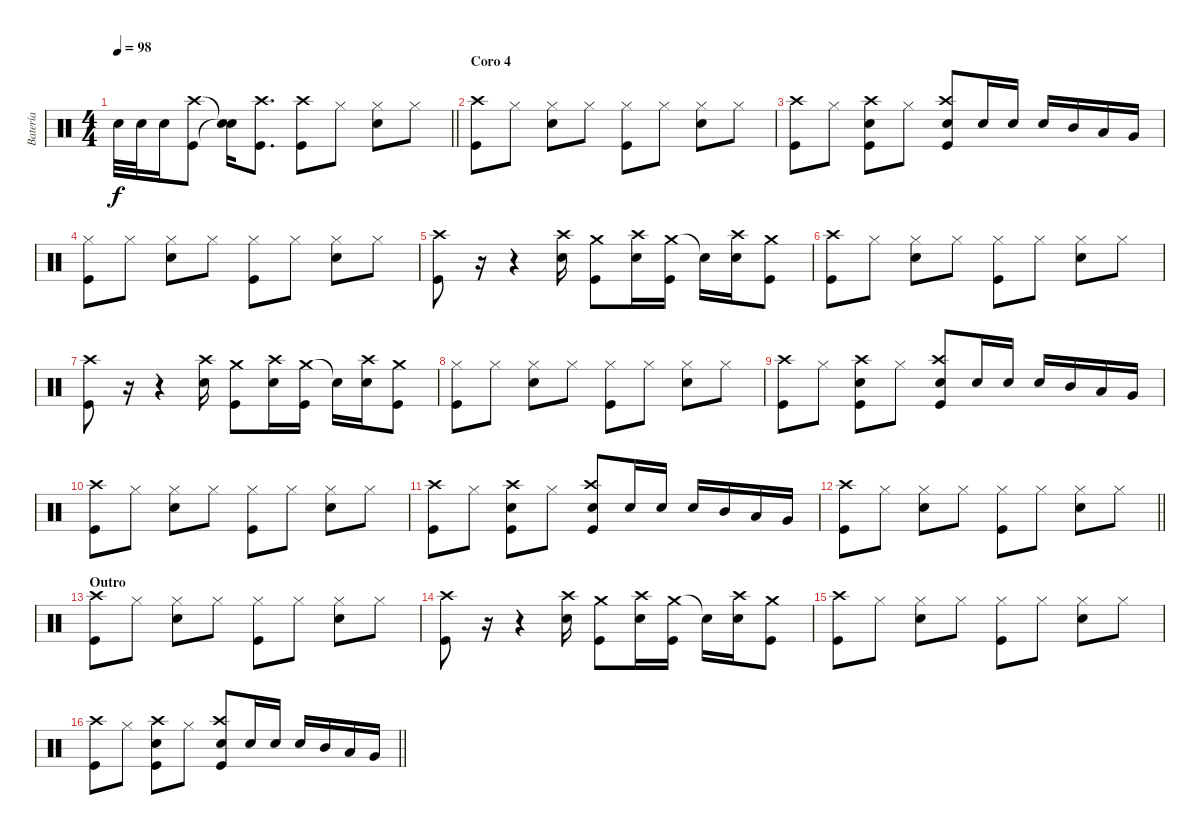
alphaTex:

\track ("Batería" "Batería") {instrument percussion}
\staff {score}
\articulation defaults
\ts (4 4)
\tempo 98
\clef neutral
\barLineRight lightlight
\ks c "Electric Snare (hit)".32{dy f} "Electric Snare (hit)".32 "Electric Snare (hit)".16
("Crash high (hit)" "Kick (hit)").8 ("Snare (hit)"{t} "Snare (hit)"{t}).16 ("Crash high (hit)" "Kick (hit)").8{d} ("Crash high (hit)" "Kick (hit)").8 "Hi-Hat (closed)".8 ("Hi-Hat (closed)" "Electric Snare (hit)").8 "Hi-Hat (closed)".8 |
\section ("" "Coro 4")
("Crash high (hit)" "Kick (hit)").8 "Hi-Hat (closed)".8 ("Hi-Hat (closed)" "Electric Snare (hit)").8 "Hi-Hat (closed)".8 ("Hi-Hat (closed)" "Kick (hit)").8 "Hi-Hat (closed)".8 ("Hi-Hat (closed)" "Electric Snare (hit)").8 "Hi-Hat (closed)".8 |
("Crash high (hit)" "Kick (hit)").8 "Hi-Hat (closed)".8 ("Crash high (hit)" "Electric Snare (hit)" "Kick (hit)").8 "Hi-Hat (closed)".8 ("Crash high (hit)" "Electric Snare (hit)" "Kick (hit)").8 "Electric Snare (hit)".16 "Electric Snare (hit)".16 "Electric Snare (hit)".16 "Mid Tom (hit)".16 "Low Tom (hit)".16 "Very Low Tom (hit)".16 |
("Hi-Hat (closed)" "Kick (hit)").8 "Hi-Hat (closed)".8 ("Hi-Hat (closed)" "Electric Snare (hit)").8 "Hi-Hat (closed)".8 ("Hi-Hat (closed)" "Kick (hit)").8 "Hi-Hat (closed)".8 ("Hi-Hat (closed)" "Electric Snare (hit)").8 "Hi-Hat (closed)".8 |
("Crash high (hit)" "Kick (hit)").8 r.16 r.4 ("Crash high (hit)" "Electric Snare (hit)").16 ("Crash medium (hit)" "Kick (hit)").8 ("Crash high (hit)" "Electric Snare (hit)").16 ("Crash medium (hit)" "Kick (hit)").16 "Snare (hit)"{t}.16 ("Crash high (hit)" "Electric Snare (hit)").16 ("Crash medium (hit)" "Kick (hit)").8 |
("Crash high (hit)" "Kick (hit)").8 "Hi-Hat (closed)".8 ("Hi-Hat (closed)" "Electric Snare (hit)").8 "Hi-Hat (closed)".8 ("Hi-Hat (closed)" "Kick (hit)").8 "Hi-Hat (closed)".8 ("Hi-Hat (closed)" "Electric Snare (hit)").8 "Hi-Hat (closed)".8 |
("Crash high (hit)" "Kick (hit)").8 r.16 r.4 ("Crash high (hit)" "Electric Snare (hit)").16 ("Crash medium (hit)" "Kick (hit)").8 ("Crash high (hit)" "Electric Snare (hit)").16 ("Crash medium (hit)" "Kick (hit)").16 "Snare (hit)"{t}.16 ("Crash high (hit)" "Electric Snare (hit)").16 ("Crash medium (hit)" "Kick (hit)").8 |
("Hi-Hat (closed)" "Kick (hit)").8 "Hi-Hat (closed)".8 ("Hi-Hat (closed)" "Electric Snare (hit)").8 "Hi-Hat (closed)".8 ("Hi-Hat (closed)" "Kick (hit)").8 "Hi-Hat (closed)".8 ("Hi-Hat (closed)" "Electric Snare (hit)").8 "Hi-Hat (closed)".8 |
("Crash high (hit)" "Kick (hit)").8 "Hi-Hat (closed)".8 ("Crash high (hit)" "Electric Snare (hit)" "Kick (hit)").8 "Hi-Hat (closed)".8 ("Crash high (hit)" "Electric Snare (hit)" "Kick (hit)").8 "Electric Snare (hit)".16 "Electric Snare (hit)".16 "Electric Snare (hit)".16 "Mid Tom (hit)".16 "Low Tom (hit)".16 "Very Low Tom (hit)".16 |
("Crash high (hit)" "Kick (hit)").8 "Hi-Hat (closed)".8 ("Hi-Hat (closed)" "Electric Snare (hit)").8 "Hi-Hat (closed)".8 ("Hi-Hat (closed)" "Kick (hit)").8 "Hi-Hat (closed)".8 ("Hi-Hat (closed)" "Electric Snare (hit)").8 "Hi-Hat (closed)".8 |
("Crash high (hit)" "Kick (hit)").8 "Hi-Hat (closed)".8 ("Crash high (hit)" "Electric Snare (hit)" "Kick (hit)").8 "Hi-Hat (closed)".8 ("Crash high (hit)" "Electric Snare (hit)" "Kick (hit)").8 "Electric Snare (hit)".16 "Electric Snare (hit)".16 "Electric Snare (hit)".16 "Mid Tom (hit)".16 "Low Tom (hit)".16 "Very Low Tom (hit)".16 |
\barLineRight lightlight
("Crash high (hit)" "Kick (hit)").8 "Hi-Hat (closed)".8 ("Hi-Hat (closed)" "Electric Snare (hit)").8 "Hi-Hat (closed)".8 ("Hi-Hat (closed)" "Kick (hit)").8 "Hi-Hat (closed)".8 ("Hi-Hat (closed)" "Electric Snare (hit)").8 "Hi-Hat (closed)".8 |
\section ("" "Outro")
("Crash high (hit)" "Kick (hit)").8 "Hi-Hat (closed)".8 ("Hi-Hat (closed)" "Electric Snare (hit)").8 "Hi-Hat (closed)".8 ("Hi-Hat (closed)" "Kick (hit)").8 "Hi-Hat (closed)".8 ("Hi-Hat (closed)" "Electric Snare (hit)").8 "Hi-Hat (closed)".8 |
("Crash high (hit)" "Kick (hit)").8 r.16 r.4 ("Crash high (hit)" "Electric Snare (hit)").16 ("Crash medium (hit)" "Kick (hit)").8 ("Crash high (hit)" "Electric Snare (hit)").16 ("Crash medium (hit)" "Kick (hit)").16 "Snare (hit)"{t}.16 ("Crash high (hit)" "Electric Snare (hit)").16 ("Crash medium (hit)" "Kick (hit)").8 |
("Crash high (hit)" "Kick (hit)").8 "Hi-Hat (closed)".8 ("Hi-Hat (closed)" "Electric Snare (hit)").8 "Hi-Hat (closed)".8 ("Hi-Hat (closed)" "Kick (hit)").8 "Hi-Hat (closed)".8 ("Hi-Hat (closed)" "Electric Snare (hit)").8 "Hi-Hat (closed)".8 |
\barLineRight lightlight
("Crash high (hit)" "Kick (hit)").8 "Hi-Hat (closed)".8 ("Crash high (hit)" "Electric Snare (hit)" "Kick (hit)").8 "Hi-Hat (closed)".8 ("Crash high (hit)" "Electric Snare (hit)" "Kick (hit)").8 "Electric Snare (hit)".16 "Electric Snare (hit)".16 "Electric Snare (hit)".16 "Mid Tom (hit)".16 "Low Tom (hit)".16 "Very Low Tom (hit)".16
